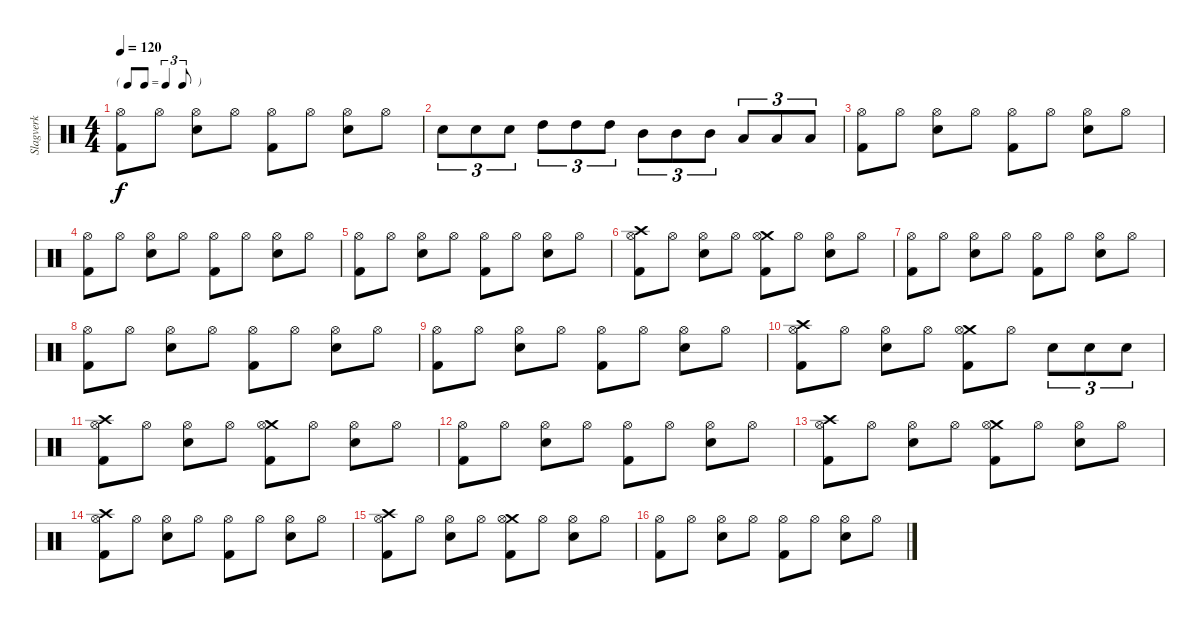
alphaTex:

\track ("Slagverk" "Slagverk") {instrument percussion}
\staff {score}
\articulation defaults
\ts (4 4)
\tf triplet8th
\tempo 120
\clef neutral
\ks c
("Hi-Hat (open)" "Kick (hit) 2").8{dy f} "Hi-Hat (open)".8 ("Electric Snare (hit)" "Hi-Hat (open)").8 "Hi-Hat (open)".8 ("Hi-Hat (open)" "Kick (hit) 2").8 "Hi-Hat (open)".8 ("Electric Snare (hit)" "Hi-Hat (open)").8 "Hi-Hat (open)".8 |
"Electric Snare (hit)".8{tu (3 2)} "Electric Snare (hit)".8{tu (3 2)} "Electric Snare (hit)".8{tu (3 2)} "High Tom (hit)".8{tu (3 2)} "High Tom (hit)".8{tu (3 2)} "High Tom (hit)".8{tu (3 2)} "Mid Tom (hit)".8{tu (3 2)} "Mid Tom (hit)".8{tu (3 2)} "Mid Tom (hit)".8{tu (3 2)} "Low Tom (hit)".8{tu (3 2)} "Low Tom (hit)".8{tu (3 2)} "Low Tom (hit)".8{tu (3 2)} |
("Hi-Hat (open)" "Kick (hit) 2").8 "Hi-Hat (open)".8 ("Electric Snare (hit)" "Hi-Hat (open)").8 "Hi-Hat (open)".8 ("Hi-Hat (open)" "Kick (hit) 2").8 "Hi-Hat (open)".8 ("Electric Snare (hit)" "Hi-Hat (open)").8 "Hi-Hat (open)".8 |
("Hi-Hat (open)" "Kick (hit) 2").8 "Hi-Hat (open)".8 ("Electric Snare (hit)" "Hi-Hat (open)").8 "Hi-Hat (open)".8 ("Hi-Hat (open)" "Kick (hit) 2").8 "Hi-Hat (open)".8 ("Electric Snare (hit)" "Hi-Hat (open)").8 "Hi-Hat (open)".8 |
("Hi-Hat (open)" "Kick (hit) 2").8 "Hi-Hat (open)".8 ("Electric Snare (hit)" "Hi-Hat (open)").8 "Hi-Hat (open)".8 ("Hi-Hat (open)" "Kick (hit) 2").8 "Hi-Hat (open)".8 ("Electric Snare (hit)" "Hi-Hat (open)").8 "Hi-Hat (open)".8 |
("Crash high (hit)" "Hi-Hat (open)" "Kick (hit) 2").8 "Hi-Hat (open)".8 ("Electric Snare (hit)" "Hi-Hat (open)").8 "Hi-Hat (open)".8 ("Crash medium (hit)" "Hi-Hat (open)" "Kick (hit) 2").8 "Hi-Hat (open)".8 ("Electric Snare (hit)" "Hi-Hat (open)").8 "Hi-Hat (open)".8 |
("Hi-Hat (open)" "Kick (hit) 2").8 "Hi-Hat (open)".8 ("Electric Snare (hit)" "Hi-Hat (open)").8 "Hi-Hat (open)".8 ("Hi-Hat (open)" "Kick (hit) 2").8 "Hi-Hat (open)".8 ("Electric Snare (hit)" "Hi-Hat (open)").8 "Hi-Hat (open)".8 |
("Hi-Hat (open)" "Kick (hit) 2").8 "Hi-Hat (open)".8 ("Electric Snare (hit)" "Hi-Hat (open)").8 "Hi-Hat (open)".8 ("Hi-Hat (open)" "Kick (hit) 2").8 "Hi-Hat (open)".8 ("Electric Snare (hit)" "Hi-Hat (open)").8 "Hi-Hat (open)".8 |
("Hi-Hat (open)" "Kick (hit) 2").8 "Hi-Hat (open)".8 ("Electric Snare (hit)" "Hi-Hat (open)").8 "Hi-Hat (open)".8 ("Hi-Hat (open)" "Kick (hit) 2").8 "Hi-Hat (open)".8 ("Electric Snare (hit)" "Hi-Hat (open)").8 "Hi-Hat (open)".8 |
("Crash high (hit)" "Hi-Hat (open)" "Kick (hit) 2").8 "Hi-Hat (open)".8 ("Electric Snare (hit)" "Hi-Hat (open)").8 "Hi-Hat (open)".8 ("Crash medium (hit)" "Hi-Hat (open)" "Kick (hit) 2").8 "Hi-Hat (open)".8 "Electric Snare (hit)".8{tu (3 2)} "Electric Snare (hit)".8{tu (3 2)} "Electric Snare (hit)".8{tu (3 2)} |
("Crash high (hit)" "Hi-Hat (open)" "Kick (hit) 2").8 "Hi-Hat (open)".8 ("Electric Snare (hit)" "Hi-Hat (open)").8 "Hi-Hat (open)".8 ("Crash medium (hit)" "Hi-Hat (open)" "Kick (hit) 2").8 "Hi-Hat (open)".8 ("Electric Snare (hit)" "Hi-Hat (open)").8 "Hi-Hat (open)".8 |
("Hi-Hat (open)" "Kick (hit) 2").8 "Hi-Hat (open)".8 ("Electric Snare (hit)" "Hi-Hat (open)").8 "Hi-Hat (open)".8 ("Hi-Hat (open)" "Kick (hit) 2").8 "Hi-Hat (open)".8 ("Electric Snare (hit)" "Hi-Hat (open)").8 "Hi-Hat (open)".8 |
("Crash high (hit)" "Hi-Hat (open)" "Kick (hit) 2").8 "Hi-Hat (open)".8 ("Electric Snare (hit)" "Hi-Hat (open)").8 "Hi-Hat (open)".8 ("Crash medium (hit)" "Hi-Hat (open)" "Kick (hit) 2").8 "Hi-Hat (open)".8 ("Electric Snare (hit)" "Hi-Hat (open)").8 "Hi-Hat (open)".8 |
("Crash high (hit)" "Hi-Hat (open)" "Kick (hit) 2").8 "Hi-Hat (open)".8 ("Electric Snare (hit)" "Hi-Hat (open)").8 "Hi-Hat (open)".8 ("Hi-Hat (open)" "Kick (hit) 2").8 "Hi-Hat (open)".8 ("Electric Snare (hit)" "Hi-Hat (open)").8 "Hi-Hat (open)".8 |
("Crash high (hit)" "Hi-Hat (open)" "Kick (hit) 2").8 "Hi-Hat (open)".8 ("Electric Snare (hit)" "Hi-Hat (open)").8 "Hi-Hat (open)".8 ("Crash medium (hit)" "Hi-Hat (open)" "Kick (hit) 2").8 "Hi-Hat (open)".8 ("Electric Snare (hit)" "Hi-Hat (open)").8 "Hi-Hat (open)".8 |
("Hi-Hat (open)" "Kick (hit) 2").8 "Hi-Hat (open)".8 ("Electric Snare (hit)" "Hi-Hat (open)").8 "Hi-Hat (open)".8 ("Hi-Hat (open)" "Kick (hit) 2").8 "Hi-Hat (open)".8 ("Electric Snare (hit)" "Hi-Hat (open)").8 "Hi-Hat (open)".8
